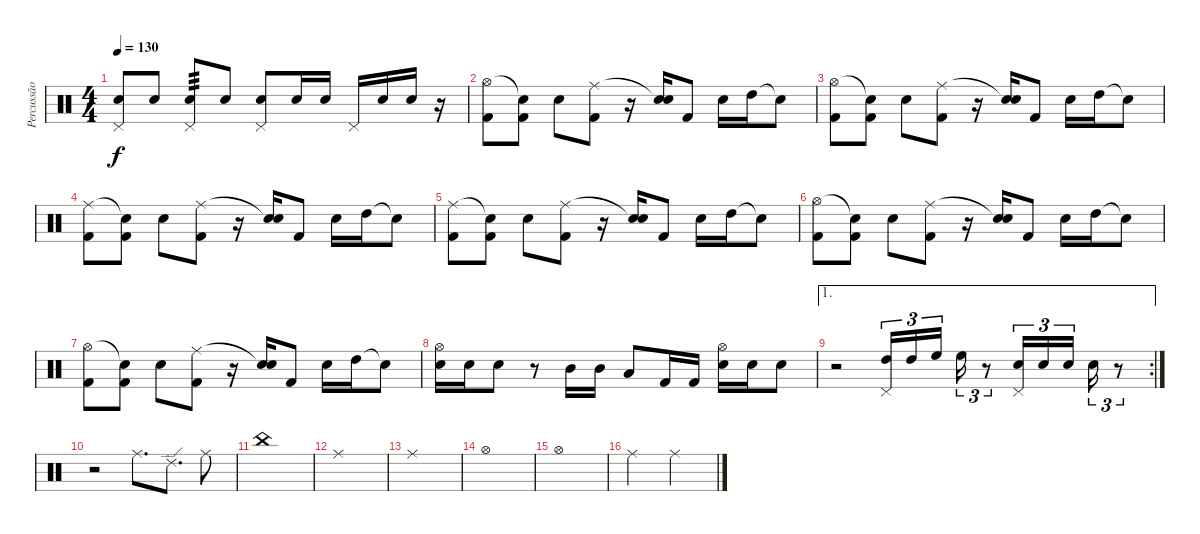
\track ("Percussão" "Percussão") {instrument percussion}
\staff {score}
\articulation defaults
\ts (4 4)
\tempo 130
\clef neutral
\ks c
("Pedal Hi-Hat (hit)" "Electric Snare (hit)").8{dy f} "Electric Snare (hit)".8 ("Pedal Hi-Hat (hit)" "Electric Snare (hit)").8{tp 3} "Electric Snare (hit)".8 ("Pedal Hi-Hat (hit)" "Electric Snare (hit)").8 "Electric Snare (hit)".16 "Electric Snare (hit)".16 "Pedal Hi-Hat (hit)".16 "Electric Snare (hit)".16 "Electric Snare (hit)".16 r.16 |
("Hi-Hat (open)" "Kick (hit) 2").8 ("Snare (hit)"{t} "Kick (hit) 2").8 "Electric Snare (hit)".8 ("Ride (middle)" "Kick (hit) 2").8 r.16 ("Snare (hit)"{t} "Electric Snare (hit)").16 "Kick (hit) 2".8 "Electric Snare (hit)".16 "High Tom (hit)".16 "Snare (hit)"{t}.8 |
("Hi-Hat (open)" "Kick (hit) 2").8 ("Snare (hit)"{t} "Kick (hit) 2").8 "Electric Snare (hit)".8 ("Ride (middle)" "Kick (hit) 2").8 r.16 ("Snare (hit)"{t} "Electric Snare (hit)").16 "Kick (hit) 2".8 "Electric Snare (hit)".16 "High Tom (hit)".16 "Snare (hit)"{t}.8 |
("Ride (middle)" "Kick (hit) 2").8 ("Snare (hit)"{t} "Kick (hit) 2").8 "Electric Snare (hit)".8 ("Ride (middle)" "Kick (hit) 2").8 r.16 ("Snare (hit)"{t} "Electric Snare (hit)").16 "Kick (hit) 2".8 "Electric Snare (hit)".16 "High Tom (hit)".16 "Snare (hit)"{t}.8 |
("Ride (middle)" "Kick (hit) 2").8 ("Snare (hit)"{t} "Kick (hit) 2").8 "Electric Snare (hit)".8 ("Ride (middle)" "Kick (hit) 2").8 r.16 ("Snare (hit)"{t} "Electric Snare (hit)").16 "Kick (hit) 2".8 "Electric Snare (hit)".16 "High Tom (hit)".16 "Snare (hit)"{t}.8 |
("Hi-Hat (open)" "Kick (hit) 2").8 ("Snare (hit)"{t} "Kick (hit) 2").8 "Electric Snare (hit)".8 ("Ride (middle)" "Kick (hit) 2").8 r.16 ("Snare (hit)"{t} "Electric Snare (hit)").16 "Kick (hit) 2".8 "Electric Snare (hit)".16 "High Tom (hit)".16 "Snare (hit)"{t}.8 |
("Hi-Hat (open)" "Kick (hit) 2").8 ("Snare (hit)"{t} "Kick (hit) 2").8 "Electric Snare (hit)".8 ("Ride (middle)" "Kick (hit) 2").8 r.16 ("Snare (hit)"{t} "Electric Snare (hit)").16 "Kick (hit) 2".8 "Electric Snare (hit)".16 "High Tom (hit)".16 "Snare (hit)"{t}.8 |
("Hi-Hat (open)" "Electric Snare (hit)").16 "Electric Snare (hit)".16 "Electric Snare (hit)".8 r.8 "Mid Tom (hit)".16 "Mid Tom (hit)".16 "Low Tom (hit)".8 "Kick (hit) 2".16 "Kick (hit) 2".16 ("Hi-Hat (open)" "Electric Snare (hit)").16 "Electric Snare (hit)".16 "Electric Snare (hit)".8 |
\ae 1
\rc 2
r.2 ("Pedal Hi-Hat (hit)" "High Tom (hit)").16{tu (3 2)} "High Tom (hit)".16{tu (3 2)} "High Floor Tom (hit)".16{tu (3 2) beam splitsecondary} "High Floor Tom (hit)".16{tu (3 2)} r.8{tu (3 2)} ("Pedal Hi-Hat (hit)" "Electric Snare (hit)").16{tu (3 2)} "Electric Snare (hit)".16{tu (3 2)} "Electric Snare (hit)".16{tu (3 2) beam splitsecondary} "Electric Snare (hit)".16{tu (3 2)} r.8{tu (3 2)} |
r.2 "Ride (middle)".8{d} "Ride (edge) 2".8{d} "Ride (middle)".8 |
"China (hit)".1 |
"Ride (middle)".1 |
"Ride (middle)".1 |
"Hi-Hat (open)".1 |
"Hi-Hat (open)".1 |
"Ride (middle)".2 "Ride (middle)".2
